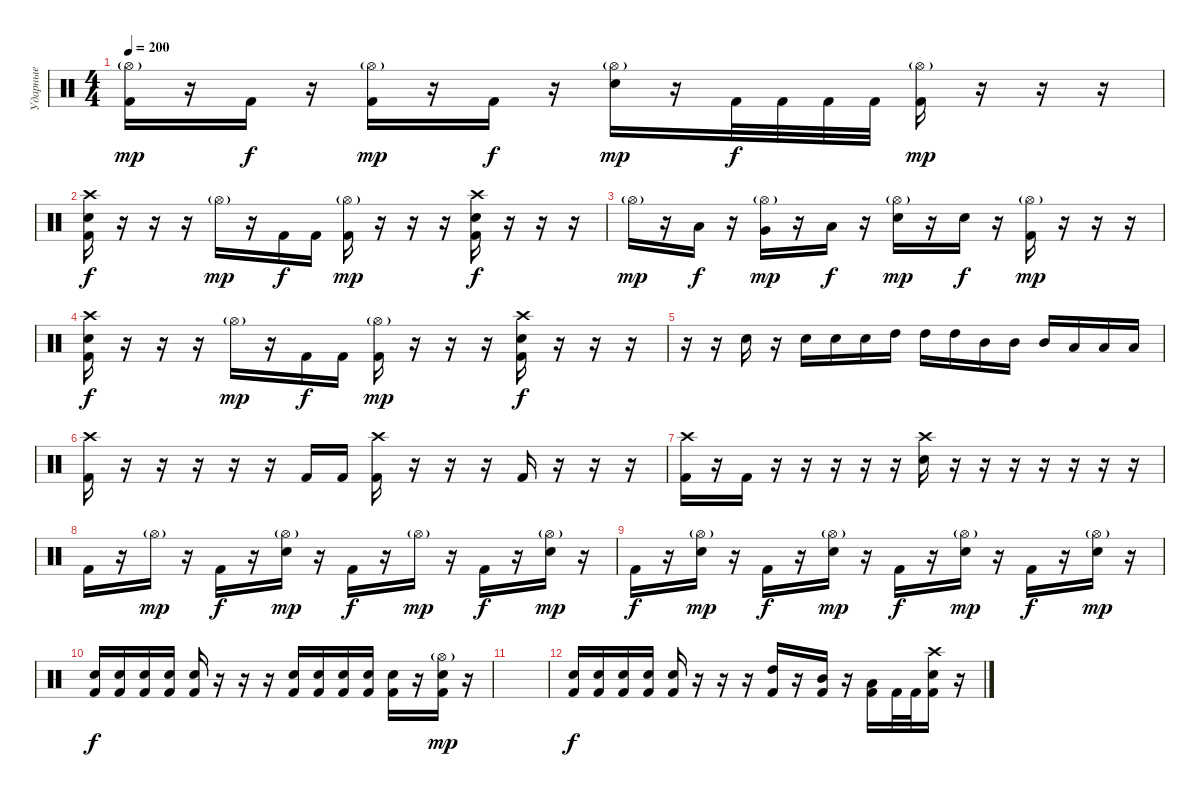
\track ("Ударные" "Ударные") {instrument percussion bank 101}
\staff {score}
\articulation defaults
\ts (4 4)
\tempo 200
\clef neutral
\ks c
("Hi-Hat (open)"{g} "Kick (hit) 2").16{dy mp} r.16 "Kick (hit) 2".16{dy f} r.16 ("Hi-Hat (open)"{g} "Kick (hit) 2").16{dy mp} r.16 "Kick (hit) 2".16{dy f} r.16 ("Hi-Hat (open)"{g} "Electric Snare (hit)").16{dy mp} r.16 "Kick (hit) 2".32{dy f} "Kick (hit) 2".32 "Kick (hit) 2".32 "Kick (hit) 2".32 ("Hi-Hat (open)"{g} "Kick (hit) 2").16{dy mp} r.16 r.16 r.16 |
("Crash high (hit)" "Electric Snare (hit)" "Kick (hit) 2").16{dy f} r.16 r.16 r.16 "Hi-Hat (open)"{g}.16{dy mp} r.16 "Kick (hit) 2".16{dy f} "Kick (hit) 2".16 ("Hi-Hat (open)"{g} "Kick (hit) 2").16{dy mp} r.16 r.16 r.16 ("Crash high (hit)" "Electric Snare (hit)" "Kick (hit) 2").16{dy f} r.16 r.16 r.16 |
"Hi-Hat (open)"{g}.16{dy mp} r.16 "Low Tom (hit)".16{dy f} r.16 ("Hi-Hat (open)"{g} "Very Low Tom (hit)").16{dy mp} r.16 "Low Floor Tom (hit)".16{dy f} r.16 ("Hi-Hat (open)"{g} "Electric Snare (hit)").16{dy mp} r.16 "Electric Snare (hit)".16{dy f} r.16 ("Hi-Hat (open)"{g} "Kick (hit) 2").16{dy mp} r.16 r.16 r.16 |
("Crash high (hit)" "Electric Snare (hit)" "Kick (hit) 2").16{dy f} r.16 r.16 r.16 "Hi-Hat (open)"{g}.16{dy mp} r.16 "Kick (hit) 2".16{dy f} "Kick (hit) 2".16 ("Hi-Hat (open)"{g} "Kick (hit) 2").16{dy mp} r.16 r.16 r.16 ("Crash high (hit)" "Electric Snare (hit)" "Kick (hit) 2").16{dy f} r.16 r.16 r.16 |
r.16 r.16 "Electric Snare (hit)".16 r.16 "Electric Snare (hit)".16 "Electric Snare (hit)".16 "Electric Snare (hit)".16 "High Tom (hit)".16 "High Tom (hit)".16 "High Tom (hit)".16 "Mid Tom (hit)".16 "Mid Tom (hit)".16 "Mid Tom (hit)".16 "Low Tom (hit)".16 "Low Tom (hit)".16 "Low Tom (hit)".16 |
("Crash high (hit)" "Kick (hit) 2").16 r.16 r.16 r.16 r.16 r.16 "Kick (hit) 2".16 "Kick (hit) 2".16 ("Crash high (hit)" "Kick (hit) 2").16 r.16 r.16 r.16 "Kick (hit) 2".16 r.16 r.16 r.16 |
("Crash high (hit)" "Kick (hit) 2").16 r.16 "Kick (hit) 2".16 r.16 r.16 r.16 r.16 r.16 ("Crash high (hit)" "Electric Snare (hit)").16 r.16 r.16 r.16 r.16 r.16 r.16 r.16 |
"Kick (hit) 2".16 r.16 "Hi-Hat (open)"{g}.16{dy mp} r.16 "Kick (hit) 2".16{dy f} r.16 ("Hi-Hat (open)"{g} "Electric Snare (hit)").16{dy mp} r.16 "Kick (hit) 2".16{dy f} r.16 "Hi-Hat (open)"{g}.16{dy mp} r.16 "Kick (hit) 2".16{dy f} r.16 ("Hi-Hat (open)"{g} "Electric Snare (hit)").16{dy mp} r.16 |
"Kick (hit) 2".16{dy f} r.16 ("Hi-Hat (open)"{g} "Electric Snare (hit)").16{dy mp} r.16 "Kick (hit) 2".16{dy f} r.16 ("Hi-Hat (open)"{g} "Electric Snare (hit)").16{dy mp} r.16 "Kick (hit) 2".16{dy f} r.16 ("Hi-Hat (open)"{g} "Electric Snare (hit)").16{dy mp} r.16 "Kick (hit) 2".16{dy f} r.16 ("Hi-Hat (open)"{g} "Electric Snare (hit)").16{dy mp} r.16 |
("Electric Snare (hit)" "Kick (hit) 2").16{dy f} ("Electric Snare (hit)" "Kick (hit) 2").16 ("Electric Snare (hit)" "Kick (hit) 2").16 ("Electric Snare (hit)" "Kick (hit) 2").16 ("Electric Snare (hit)" "Kick (hit) 2").16 r.16 r.16 r.16 ("Electric Snare (hit)" "Kick (hit) 2").16 ("Electric Snare (hit)" "Kick (hit) 2").16 ("Electric Snare (hit)" "Kick (hit) 2").16 ("Electric Snare (hit)" "Kick (hit) 2").16 ("Electric Snare (hit)" "Kick (hit) 2").16 r.16 ("Hi-Hat (open)"{g} "Electric Snare (hit)" "Kick (hit) 2").16{dy mp} r.16 |
|
("Electric Snare (hit)" "Kick (hit) 2").16{dy f} ("Electric Snare (hit)" "Kick (hit) 2").16 ("Electric Snare (hit)" "Kick (hit) 2").16 ("Electric Snare (hit)" "Kick (hit) 2").16 ("Electric Snare (hit)" "Kick (hit) 2").16 r.16 r.16 r.16 ("High Tom (hit)" "Kick (hit) 2").16 r.16 ("Mid Tom (hit)" "Kick (hit) 2").16 r.16 ("Low Tom (hit)" "Kick (hit) 2").16 "Kick (hit) 2".32 "Kick (hit) 2".32 ("Crash high (hit)" "Electric Snare (hit)" "Kick (hit) 2").16 r.16
